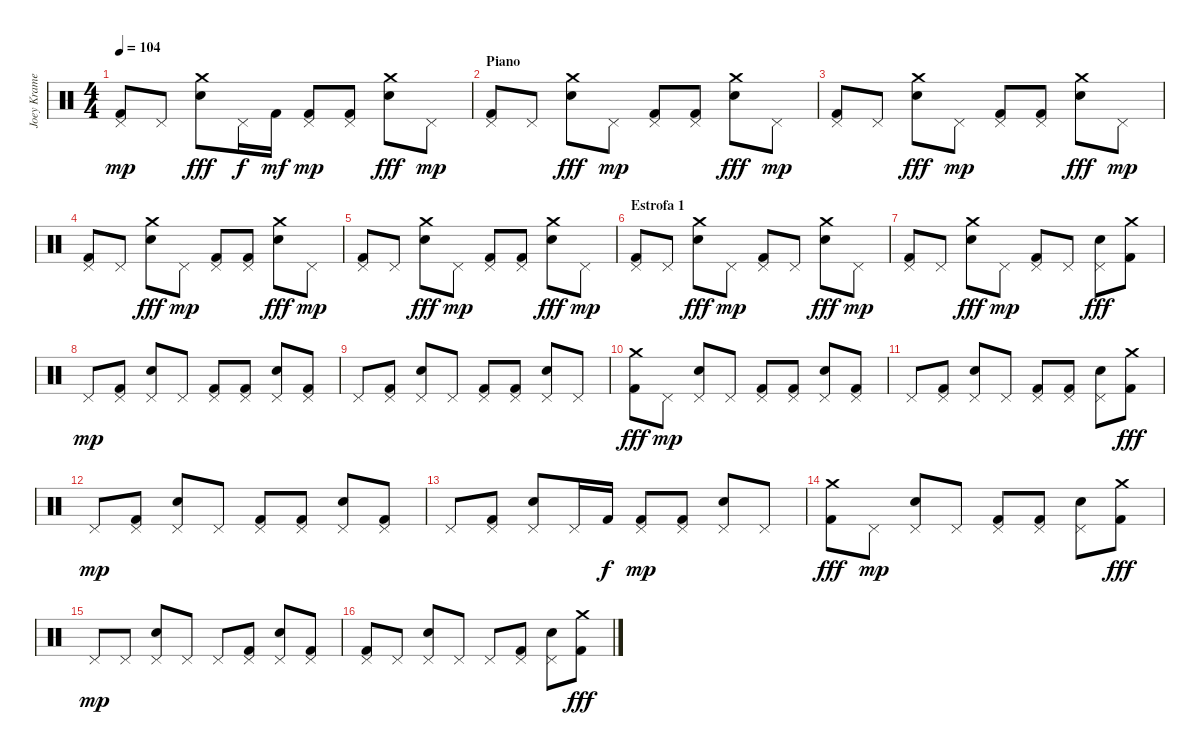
\track ("Joey Kramer" "Joey Krame") {instrument percussion}
\staff {score}
\articulation defaults
\ts (4 4)
\tempo 104
\clef neutral
\ks c
("Pedal Hi-Hat (hit)" "Kick (hit) 2").8{dy mp} "Pedal Hi-Hat (hit)".8 ("Crash medium (hit)" "Snare (hit) 2").8{dy fff} "Pedal Hi-Hat (hit)".16{dy f} "Kick (hit) 2".16{dy mf} ("Pedal Hi-Hat (hit)" "Kick (hit) 2").8{dy mp} ("Pedal Hi-Hat (hit)" "Kick (hit) 2").8 ("Crash medium (hit)" "Snare (hit) 2").8{dy fff} "Pedal Hi-Hat (hit)".8{dy mp} |
\section ("" "Piano")
("Pedal Hi-Hat (hit)" "Kick (hit) 2").8 "Pedal Hi-Hat (hit)".8 ("Crash medium (hit)" "Snare (hit) 2").8{dy fff} "Pedal Hi-Hat (hit)".8{dy mp} ("Pedal Hi-Hat (hit)" "Kick (hit) 2").8 ("Pedal Hi-Hat (hit)" "Kick (hit) 2").8 ("Crash medium (hit)" "Snare (hit) 2").8{dy fff} "Pedal Hi-Hat (hit)".8{dy mp} |
("Pedal Hi-Hat (hit)" "Kick (hit) 2").8 "Pedal Hi-Hat (hit)".8 ("Crash medium (hit)" "Snare (hit) 2").8{dy fff} "Pedal Hi-Hat (hit)".8{dy mp} ("Pedal Hi-Hat (hit)" "Kick (hit) 2").8 ("Pedal Hi-Hat (hit)" "Kick (hit) 2").8 ("Crash medium (hit)" "Snare (hit) 2").8{dy fff} "Pedal Hi-Hat (hit)".8{dy mp} |
("Pedal Hi-Hat (hit)" "Kick (hit) 2").8 "Pedal Hi-Hat (hit)".8 ("Crash medium (hit)" "Snare (hit) 2").8{dy fff} "Pedal Hi-Hat (hit)".8{dy mp} ("Pedal Hi-Hat (hit)" "Kick (hit) 2").8 ("Pedal Hi-Hat (hit)" "Kick (hit) 2").8 ("Crash medium (hit)" "Snare (hit) 2").8{dy fff} "Pedal Hi-Hat (hit)".8{dy mp} |
("Pedal Hi-Hat (hit)" "Kick (hit) 2").8 "Pedal Hi-Hat (hit)".8 ("Crash medium (hit)" "Snare (hit) 2").8{dy fff} "Pedal Hi-Hat (hit)".8{dy mp} ("Pedal Hi-Hat (hit)" "Kick (hit) 2").8 ("Pedal Hi-Hat (hit)" "Kick (hit) 2").8 ("Crash medium (hit)" "Snare (hit) 2").8{dy fff} "Pedal Hi-Hat (hit)".8{dy mp} |
\section ("" "Estrofa 1")
("Pedal Hi-Hat (hit)" "Kick (hit) 2").8 "Pedal Hi-Hat (hit)".8 ("Crash medium (hit)" "Snare (hit) 2").8{dy fff} "Pedal Hi-Hat (hit)".8{dy mp} ("Pedal Hi-Hat (hit)" "Kick (hit) 2").8 "Pedal Hi-Hat (hit)".8 ("Crash medium (hit)" "Snare (hit) 2").8{dy fff} "Pedal Hi-Hat (hit)".8{dy mp} |
("Pedal Hi-Hat (hit)" "Kick (hit) 2").8 "Pedal Hi-Hat (hit)".8 ("Crash medium (hit)" "Snare (hit) 2").8{dy fff} "Pedal Hi-Hat (hit)".8{dy mp} ("Pedal Hi-Hat (hit)" "Kick (hit) 2").8 "Pedal Hi-Hat (hit)".8 ("Pedal Hi-Hat (hit)" "Snare (hit) 2").8{dy fff} ("Crash medium (hit)" "Kick (hit) 2").8 |
"Pedal Hi-Hat (hit)".8{dy mp} ("Pedal Hi-Hat (hit)" "Kick (hit) 2").8 ("Pedal Hi-Hat (hit)" "Snare (hit) 2").8 "Pedal Hi-Hat (hit)".8 ("Pedal Hi-Hat (hit)" "Kick (hit) 2").8 ("Pedal Hi-Hat (hit)" "Kick (hit) 2").8 ("Pedal Hi-Hat (hit)" "Snare (hit) 2").8 ("Pedal Hi-Hat (hit)" "Kick (hit) 2").8 |
"Pedal Hi-Hat (hit)".8 ("Pedal Hi-Hat (hit)" "Kick (hit) 2").8 ("Pedal Hi-Hat (hit)" "Snare (hit) 2").8 "Pedal Hi-Hat (hit)".8 ("Pedal Hi-Hat (hit)" "Kick (hit) 2").8 ("Pedal Hi-Hat (hit)" "Kick (hit) 2").8 ("Pedal Hi-Hat (hit)" "Snare (hit) 2").8 "Pedal Hi-Hat (hit)".8 |
("Crash medium (hit)" "Kick (hit) 2").8{dy fff} "Pedal Hi-Hat (hit)".8{dy mp} ("Pedal Hi-Hat (hit)" "Snare (hit) 2").8 "Pedal Hi-Hat (hit)".8 ("Pedal Hi-Hat (hit)" "Kick (hit) 2").8 ("Pedal Hi-Hat (hit)" "Kick (hit) 2").8 ("Pedal Hi-Hat (hit)" "Snare (hit) 2").8 ("Pedal Hi-Hat (hit)" "Kick (hit) 2").8 |
"Pedal Hi-Hat (hit)".8 ("Pedal Hi-Hat (hit)" "Kick (hit) 2").8 ("Pedal Hi-Hat (hit)" "Snare (hit) 2").8 "Pedal Hi-Hat (hit)".8 ("Pedal Hi-Hat (hit)" "Kick (hit) 2").8 ("Pedal Hi-Hat (hit)" "Kick (hit) 2").8 ("Pedal Hi-Hat (hit)" "Snare (hit) 2").8 ("Crash medium (hit)" "Kick (hit) 2").8{dy fff} |
"Pedal Hi-Hat (hit)".8{dy mp} ("Pedal Hi-Hat (hit)" "Kick (hit) 2").8 ("Pedal Hi-Hat (hit)" "Snare (hit) 2").8 "Pedal Hi-Hat (hit)".8 ("Pedal Hi-Hat (hit)" "Kick (hit) 2").8 ("Pedal Hi-Hat (hit)" "Kick (hit) 2").8 ("Pedal Hi-Hat (hit)" "Snare (hit) 2").8 ("Pedal Hi-Hat (hit)" "Kick (hit) 2").8 |
"Pedal Hi-Hat (hit)".8 ("Pedal Hi-Hat (hit)" "Kick (hit) 2").8 ("Pedal Hi-Hat (hit)" "Snare (hit) 2").8 "Pedal Hi-Hat (hit)".16 "Kick (hit) 2".16{dy f} ("Pedal Hi-Hat (hit)" "Kick (hit) 2").8{dy mp} ("Pedal Hi-Hat (hit)" "Kick (hit) 2").8 ("Pedal Hi-Hat (hit)" "Snare (hit) 2").8 "Pedal Hi-Hat (hit)".8 |
("Crash medium (hit)" "Kick (hit) 2").8{dy fff} "Pedal Hi-Hat (hit)".8{dy mp} ("Pedal Hi-Hat (hit)" "Snare (hit) 2").8 "Pedal Hi-Hat (hit)".8 ("Pedal Hi-Hat (hit)" "Kick (hit) 2").8 ("Pedal Hi-Hat (hit)" "Kick (hit) 2").8 ("Pedal Hi-Hat (hit)" "Snare (hit) 2").8 ("Crash medium (hit)" "Kick (hit) 2").8{dy fff} |
"Pedal Hi-Hat (hit)".8{dy mp} "Pedal Hi-Hat (hit)".8 ("Pedal Hi-Hat (hit)" "Snare (hit) 2").8 "Pedal Hi-Hat (hit)".8 "Pedal Hi-Hat (hit)".8 ("Pedal Hi-Hat (hit)" "Kick (hit) 2").8 ("Pedal Hi-Hat (hit)" "Snare (hit) 2").8 ("Pedal Hi-Hat (hit)" "Kick (hit) 2").8 |
("Pedal Hi-Hat (hit)" "Kick (hit) 2").8 "Pedal Hi-Hat (hit)".8 ("Pedal Hi-Hat (hit)" "Snare (hit) 2").8 "Pedal Hi-Hat (hit)".8 "Pedal Hi-Hat (hit)".8 ("Pedal Hi-Hat (hit)" "Kick (hit) 2").8 ("Pedal Hi-Hat (hit)" "Snare (hit) 2").8 ("Crash medium (hit)" "Kick (hit) 2").8{dy fff}
